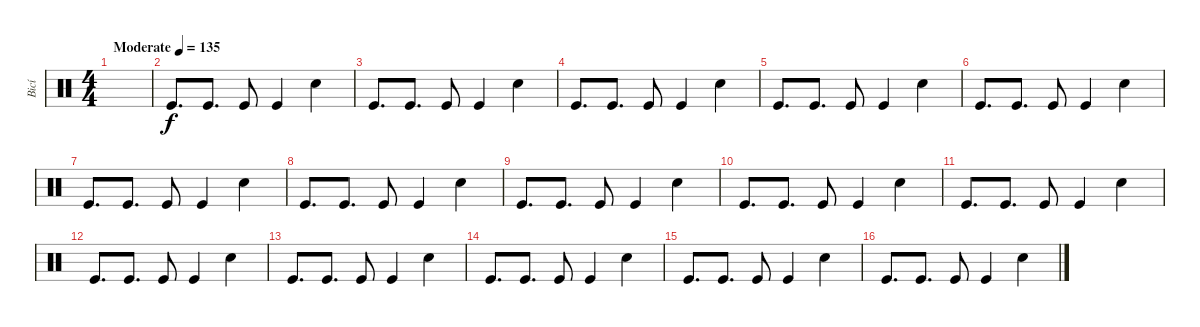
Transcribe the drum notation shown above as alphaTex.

\track ("Bicí" "Bicí") {instrument percussion}
\staff {score}
\articulation defaults
\ts (4 4)
\tempo (135 "Moderate")
\clef neutral
\ks c
|
"Kick (hit)".8{d} "Kick (hit)".8{d} "Kick (hit)".8 "Kick (hit)".4 "Electric Snare (hit)".4 |
"Kick (hit)".8{d} "Kick (hit)".8{d} "Kick (hit)".8 "Kick (hit)".4 "Electric Snare (hit)".4 |
"Kick (hit)".8{d} "Kick (hit)".8{d} "Kick (hit)".8 "Kick (hit)".4 "Electric Snare (hit)".4 |
"Kick (hit)".8{d} "Kick (hit)".8{d} "Kick (hit)".8 "Kick (hit)".4 "Electric Snare (hit)".4 |
"Kick (hit)".8{d} "Kick (hit)".8{d} "Kick (hit)".8 "Kick (hit)".4 "Electric Snare (hit)".4 |
"Kick (hit)".8{d} "Kick (hit)".8{d} "Kick (hit)".8 "Kick (hit)".4 "Electric Snare (hit)".4 |
"Kick (hit)".8{d} "Kick (hit)".8{d} "Kick (hit)".8 "Kick (hit)".4 "Electric Snare (hit)".4 |
"Kick (hit)".8{d} "Kick (hit)".8{d} "Kick (hit)".8 "Kick (hit)".4 "Electric Snare (hit)".4 |
"Kick (hit)".8{d} "Kick (hit)".8{d} "Kick (hit)".8 "Kick (hit)".4 "Electric Snare (hit)".4 |
"Kick (hit)".8{d} "Kick (hit)".8{d} "Kick (hit)".8 "Kick (hit)".4 "Electric Snare (hit)".4 |
"Kick (hit)".8{d} "Kick (hit)".8{d} "Kick (hit)".8 "Kick (hit)".4 "Electric Snare (hit)".4 |
"Kick (hit)".8{d} "Kick (hit)".8{d} "Kick (hit)".8 "Kick (hit)".4 "Electric Snare (hit)".4 |
"Kick (hit)".8{d} "Kick (hit)".8{d} "Kick (hit)".8 "Kick (hit)".4 "Electric Snare (hit)".4 |
"Kick (hit)".8{d} "Kick (hit)".8{d} "Kick (hit)".8 "Kick (hit)".4 "Electric Snare (hit)".4 |
"Kick (hit)".8{d} "Kick (hit)".8{d} "Kick (hit)".8 "Kick (hit)".4 "Electric Snare (hit)".4
